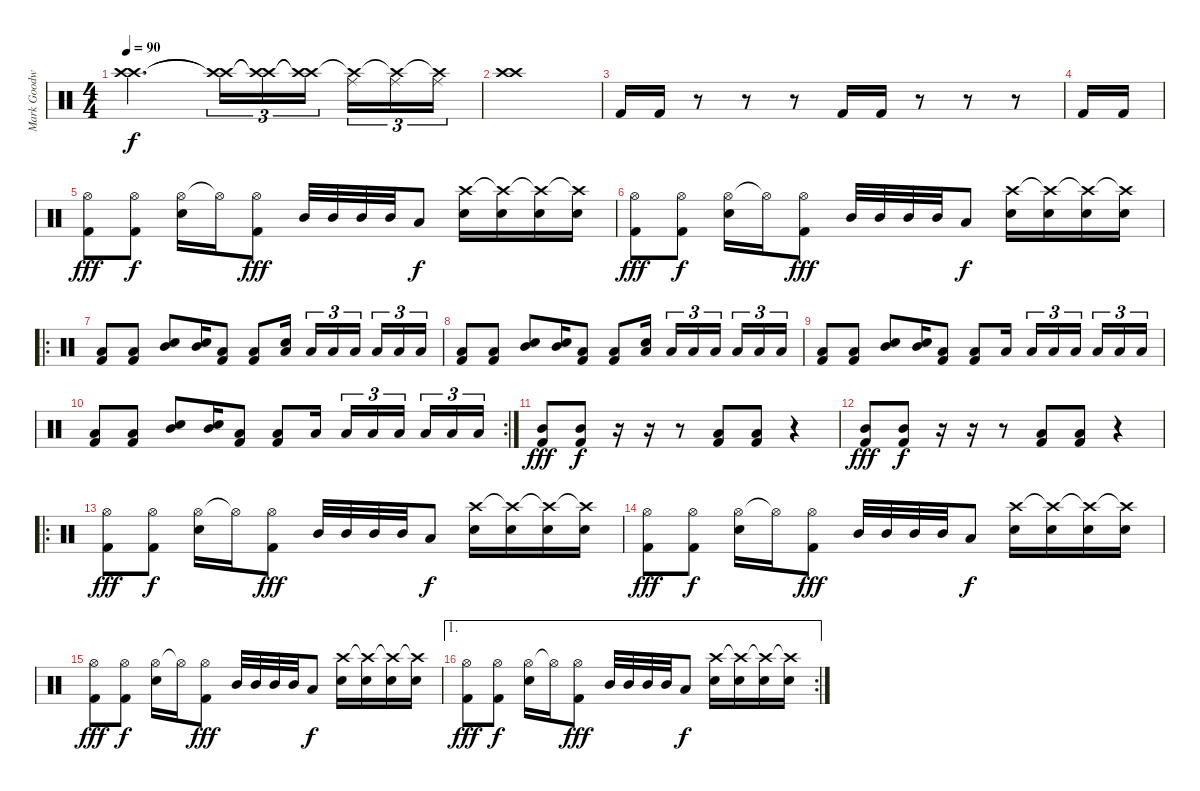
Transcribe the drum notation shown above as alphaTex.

\track ("Mark Goodwin" "Mark Goodw") {instrument percussion}
\staff {score}
\articulation defaults
\ts (4 4)
\tempo 90
\clef neutral
\ks c
("Crash high (hit)" "Crash high (hit)").2{d dy f} ("Crash high (hit)"{t} "Crash high (hit)"{t}).16{tu (3 2)} ("Crash high (hit)"{t} "Crash high (hit)"{t}).16{tu (3 2)} ("Crash high (hit)"{t} "Crash high (hit)"{t}).16{tu (3 2) beam splitsecondary} ("Crash high (hit)"{t} "Ride (middle)").16{tu (3 2)} ("Crash high (hit)"{t} "Ride (middle)").16{tu (3 2)} ("Crash high (hit)"{t} "Ride (middle)").16{tu (3 2)} |
("Crash high (hit)" "Crash high (hit)").1 |
"Kick (hit) 2".16 "Kick (hit) 2".16 r.8 r.8 r.8 "Kick (hit) 2".16 "Kick (hit) 2".16 r.8 r.8 r.8 |
"Kick (hit) 2".16 "Kick (hit) 2".16 |
("Hi-Hat (open)" "Kick (hit) 2").8{dy fff} ("Hi-Hat (open)" "Kick (hit) 2").8{dy f} ("Hi-Hat (open)" "Electric Snare (hit)").16 "Hi-Hat (open)"{t}.16 ("Hi-Hat (open)" "Kick (hit) 2").8{dy fff} "Mid Tom (hit)".32 "Mid Tom (hit)".32 "Mid Tom (hit)".32 "Mid Tom (hit)".32 "Low Floor Tom (hit)".8{dy f} ("Crash high (hit)" "Electric Snare (hit)").16 ("Crash high (hit)"{t} "Electric Snare (hit)").16 ("Crash high (hit)"{t} "Electric Snare (hit)").16 ("Crash high (hit)"{t} "Electric Snare (hit)").16 |
("Hi-Hat (open)" "Kick (hit) 2").8{dy fff} ("Hi-Hat (open)" "Kick (hit) 2").8{dy f} ("Hi-Hat (open)" "Electric Snare (hit)").16 "Hi-Hat (open)"{t}.16 ("Hi-Hat (open)" "Kick (hit) 2").8{dy fff} "Mid Tom (hit)".32 "Mid Tom (hit)".32 "Mid Tom (hit)".32 "Mid Tom (hit)".32 "Low Floor Tom (hit)".8{dy f} ("Crash high (hit)" "Electric Snare (hit)").16 ("Crash high (hit)"{t} "Electric Snare (hit)").16 ("Crash high (hit)"{t} "Electric Snare (hit)").16 ("Crash high (hit)"{t} "Electric Snare (hit)").16 |
\ro
("Low Floor Tom (hit)" "Kick (hit) 2").8 ("Low Floor Tom (hit)" "Kick (hit) 2").8 ("Mid Tom (hit)" "Electric Snare (hit)").8 ("Mid Tom (hit)" "Electric Snare (hit)").16 ("Low Floor Tom (hit)" "Kick (hit) 2").8 ("Low Floor Tom (hit)" "Kick (hit) 2").8 ("Low Tom (hit)" "Snare (hit) 2").16 "Low Tom (hit)".16{tu (3 2)} "Low Tom (hit)".16{tu (3 2)} "Low Tom (hit)".16{tu (3 2) beam splitsecondary} "Low Tom (hit)".16{tu (3 2)} "Low Tom (hit)".16{tu (3 2)} "Low Tom (hit)".16{tu (3 2)} |
("Low Floor Tom (hit)" "Kick (hit) 2").8 ("Low Floor Tom (hit)" "Kick (hit) 2").8 ("Mid Tom (hit)" "Electric Snare (hit)").8 ("Mid Tom (hit)" "Electric Snare (hit)").16 ("Low Floor Tom (hit)" "Kick (hit) 2").8 ("Low Floor Tom (hit)" "Kick (hit) 2").8 ("Low Tom (hit)" "Electric Snare (hit)").16 "Low Tom (hit)".16{tu (3 2)} "Low Tom (hit)".16{tu (3 2)} "Low Tom (hit)".16{tu (3 2) beam splitsecondary} "Low Tom (hit)".16{tu (3 2)} "Low Tom (hit)".16{tu (3 2)} "Low Tom (hit)".16{tu (3 2)} |
("Low Floor Tom (hit)" "Kick (hit) 2").8 ("Low Floor Tom (hit)" "Kick (hit) 2").8 ("Mid Tom (hit)" "Electric Snare (hit)").8 ("Mid Tom (hit)" "Electric Snare (hit)").16 ("Low Floor Tom (hit)" "Kick (hit) 2").8 ("Low Floor Tom (hit)" "Kick (hit) 2").8 "Low Tom (hit)".16 "Low Tom (hit)".16{tu (3 2)} "Low Tom (hit)".16{tu (3 2)} "Low Tom (hit)".16{tu (3 2) beam splitsecondary} "Low Tom (hit)".16{tu (3 2)} "Low Tom (hit)".16{tu (3 2)} "Low Tom (hit)".16{tu (3 2)} |
\rc 2
("Low Floor Tom (hit)" "Kick (hit) 2").8 ("Low Floor Tom (hit)" "Kick (hit) 2").8 ("Mid Tom (hit)" "Electric Snare (hit)").8 ("Mid Tom (hit)" "Electric Snare (hit)").16 ("Low Floor Tom (hit)" "Kick (hit) 2").8 ("Low Floor Tom (hit)" "Kick (hit) 2").8 "Low Tom (hit)".16 "Low Tom (hit)".16{tu (3 2)} "Low Tom (hit)".16{tu (3 2)} "Low Tom (hit)".16{tu (3 2) beam splitsecondary} "Low Tom (hit)".16{tu (3 2)} "Low Tom (hit)".16{tu (3 2)} "Low Tom (hit)".16{tu (3 2)} |
("Mid Tom (hit)" "Kick (hit) 2").8{dy fff} ("Mid Tom (hit)" "Kick (hit) 2").8{dy f} r.16 r.16 r.8 ("Low Tom (hit)" "Kick (hit) 2").8 ("Low Tom (hit)" "Kick (hit) 2").8 r.4 |
("Mid Tom (hit)" "Kick (hit) 2").8{dy fff} ("Mid Tom (hit)" "Kick (hit) 2").8{dy f} r.16 r.16 r.8 ("Low Tom (hit)" "Kick (hit) 2").8 ("Low Tom (hit)" "Kick (hit) 2").8 r.4 |
\ro
("Hi-Hat (open)" "Kick (hit) 2").8{dy fff} ("Hi-Hat (open)" "Kick (hit) 2").8{dy f} ("Hi-Hat (open)" "Electric Snare (hit)").16 "Hi-Hat (open)"{t}.16 ("Hi-Hat (open)" "Kick (hit) 2").8{dy fff} "Mid Tom (hit)".32 "Mid Tom (hit)".32 "Mid Tom (hit)".32 "Mid Tom (hit)".32 "Low Floor Tom (hit)".8{dy f} ("Crash high (hit)" "Electric Snare (hit)").16 ("Crash high (hit)"{t} "Electric Snare (hit)").16 ("Crash high (hit)"{t} "Electric Snare (hit)").16 ("Crash high (hit)"{t} "Electric Snare (hit)").16 |
("Hi-Hat (open)" "Kick (hit) 2").8{dy fff} ("Hi-Hat (open)" "Kick (hit) 2").8{dy f} ("Hi-Hat (open)" "Electric Snare (hit)").16 "Hi-Hat (open)"{t}.16 ("Hi-Hat (open)" "Kick (hit) 2").8{dy fff} "Mid Tom (hit)".32 "Mid Tom (hit)".32 "Mid Tom (hit)".32 "Mid Tom (hit)".32 "Low Floor Tom (hit)".8{dy f} ("Crash high (hit)" "Electric Snare (hit)").16 ("Crash high (hit)"{t} "Electric Snare (hit)").16 ("Crash high (hit)"{t} "Electric Snare (hit)").16 ("Crash high (hit)"{t} "Electric Snare (hit)").16 |
("Hi-Hat (open)" "Kick (hit) 2").8{dy fff} ("Hi-Hat (open)" "Kick (hit) 2").8{dy f} ("Hi-Hat (open)" "Electric Snare (hit)").16 "Hi-Hat (open)"{t}.16 ("Hi-Hat (open)" "Kick (hit) 2").8{dy fff} "Mid Tom (hit)".32 "Mid Tom (hit)".32 "Mid Tom (hit)".32 "Mid Tom (hit)".32 "Low Floor Tom (hit)".8{dy f} ("Crash high (hit)" "Electric Snare (hit)").16 ("Crash high (hit)"{t} "Electric Snare (hit)").16 ("Crash high (hit)"{t} "Electric Snare (hit)").16 ("Crash high (hit)"{t} "Electric Snare (hit)").16 |
\ae 1
\rc 2
("Hi-Hat (open)" "Kick (hit) 2").8{dy fff} ("Hi-Hat (open)" "Kick (hit) 2").8{dy f} ("Hi-Hat (open)" "Electric Snare (hit)").16 "Hi-Hat (open)"{t}.16 ("Hi-Hat (open)" "Kick (hit) 2").8{dy fff} "Mid Tom (hit)".32 "Mid Tom (hit)".32 "Mid Tom (hit)".32 "Mid Tom (hit)".32 "Low Floor Tom (hit)".8{dy f} ("Crash high (hit)" "Electric Snare (hit)").16 ("Crash high (hit)"{t} "Electric Snare (hit)").16 ("Crash high (hit)"{t} "Electric Snare (hit)").16 ("Crash high (hit)"{t} "Electric Snare (hit)").16
